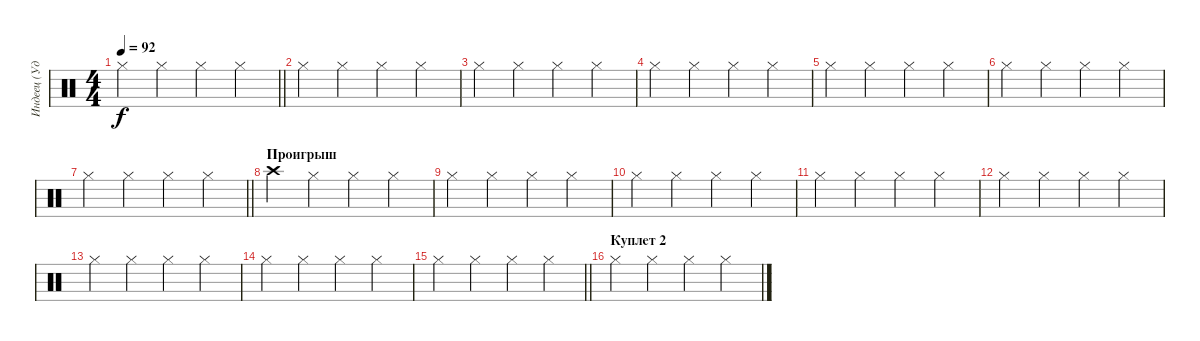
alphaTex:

\track ("Индеец (Ударные)" "Индеец (Уд") {instrument percussion}
\staff {score}
\articulation defaults
\ts (4 4)
\tempo 92
\clef neutral
\barLineRight lightlight
\ks c "Hi-Hat (closed)".4{dy f} "Hi-Hat (closed)".4 "Hi-Hat (closed)".4 "Hi-Hat (closed)".4
|
"Hi-Hat (closed)".4 "Hi-Hat (closed)".4 "Hi-Hat (closed)".4 "Hi-Hat (closed)".4 |
"Hi-Hat (closed)".4 "Hi-Hat (closed)".4 "Hi-Hat (closed)".4 "Hi-Hat (closed)".4 |
"Hi-Hat (closed)".4 "Hi-Hat (closed)".4 "Hi-Hat (closed)".4 "Hi-Hat (closed)".4 |
"Hi-Hat (closed)".4 "Hi-Hat (closed)".4 "Hi-Hat (closed)".4 "Hi-Hat (closed)".4 |
"Hi-Hat (closed)".4 "Hi-Hat (closed)".4 "Hi-Hat (closed)".4 "Hi-Hat (closed)".4 |
\barLineRight lightlight "Hi-Hat (closed)".4 "Hi-Hat (closed)".4 "Hi-Hat (closed)".4 "Hi-Hat (closed)".4
|
\section ("" "Проигрыш")
"Crash high (hit)".4 "Hi-Hat (closed)".4 "Hi-Hat (closed)".4 "Hi-Hat (closed)".4 |
"Hi-Hat (closed)".4 "Hi-Hat (closed)".4 "Hi-Hat (closed)".4 "Hi-Hat (closed)".4 |
"Hi-Hat (closed)".4 "Hi-Hat (closed)".4 "Hi-Hat (closed)".4 "Hi-Hat (closed)".4 |
"Hi-Hat (closed)".4 "Hi-Hat (closed)".4 "Hi-Hat (closed)".4 "Hi-Hat (closed)".4 |
"Hi-Hat (closed)".4 "Hi-Hat (closed)".4 "Hi-Hat (closed)".4 "Hi-Hat (closed)".4 |
"Hi-Hat (closed)".4 "Hi-Hat (closed)".4 "Hi-Hat (closed)".4 "Hi-Hat (closed)".4 |
"Hi-Hat (closed)".4 "Hi-Hat (closed)".4 "Hi-Hat (closed)".4 "Hi-Hat (closed)".4 |
\barLineRight lightlight "Hi-Hat (closed)".4 "Hi-Hat (closed)".4 "Hi-Hat (closed)".4 "Hi-Hat (closed)".4
|
\section ("" "Куплет 2")
"Hi-Hat (closed)".4 "Hi-Hat (closed)".4 "Hi-Hat (closed)".4 "Hi-Hat (closed)".4
